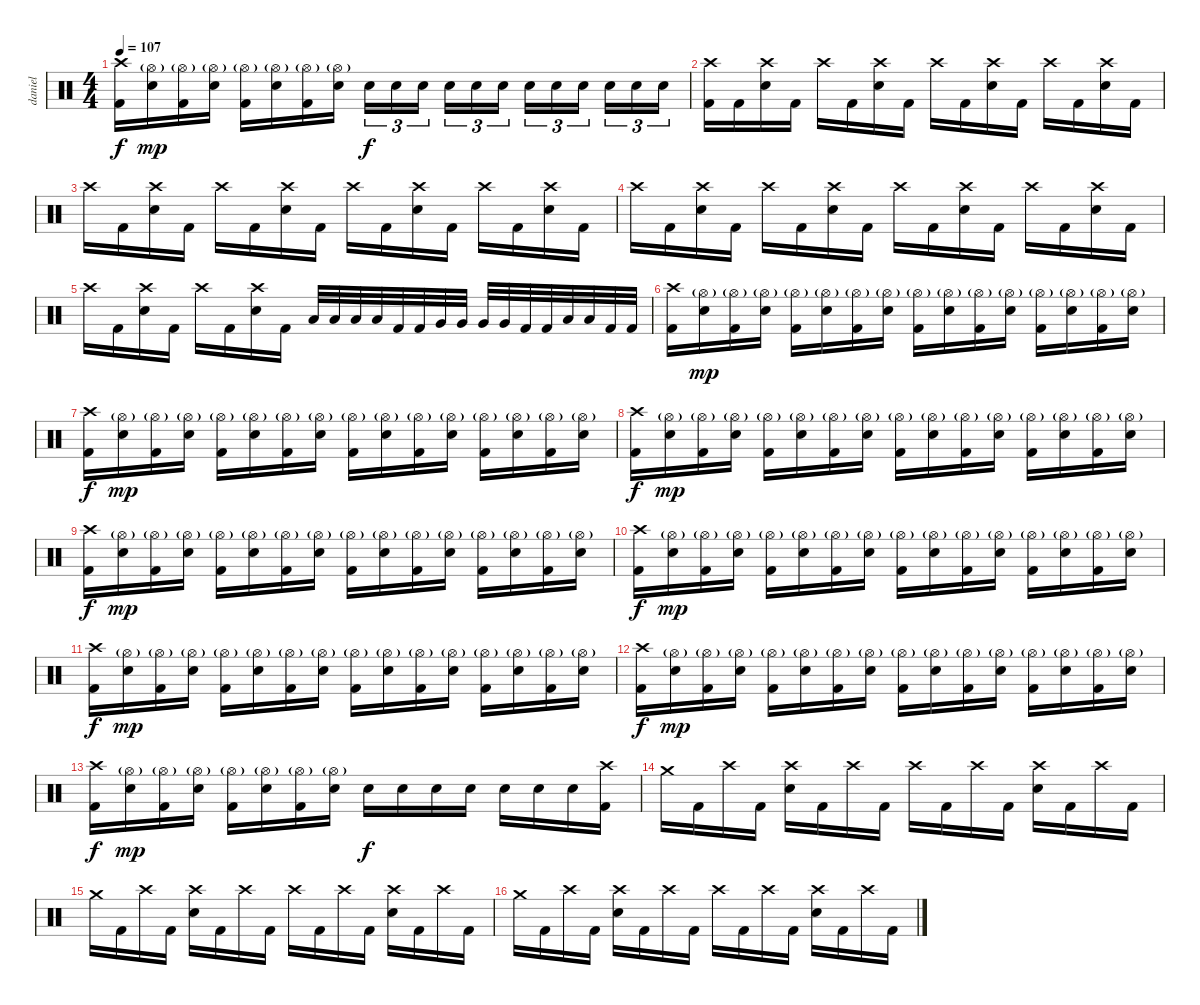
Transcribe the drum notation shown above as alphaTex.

\track ("daniel" "daniel") {instrument percussion}
\staff {score}
\articulation defaults
\ts (4 4)
\tempo 107
\clef neutral
\ks c
("Crash high (hit)" "Kick (hit) 2").16{dy f} ("Hi-Hat (open)"{g} "Electric Snare (hit)").16{dy mp} ("Hi-Hat (open)"{g} "Kick (hit) 2").16 ("Hi-Hat (open)"{g} "Electric Snare (hit)").16 ("Hi-Hat (open)"{g} "Kick (hit) 2").16 ("Hi-Hat (open)"{g} "Electric Snare (hit)").16 ("Hi-Hat (open)"{g} "Kick (hit) 2").16 ("Hi-Hat (open)"{g} "Electric Snare (hit)").16 "Electric Snare (hit)".16{tu (3 2) dy f} "Electric Snare (hit)".16{tu (3 2)} "Electric Snare (hit)".16{tu (3 2)} "Electric Snare (hit)".16{tu (3 2)} "Electric Snare (hit)".16{tu (3 2)} "Electric Snare (hit)".16{tu (3 2)} "Electric Snare (hit)".16{tu (3 2)} "Electric Snare (hit)".16{tu (3 2)} "Electric Snare (hit)".16{tu (3 2)} "Electric Snare (hit)".16{tu (3 2)} "Electric Snare (hit)".16{tu (3 2)} "Electric Snare (hit)".16{tu (3 2)} |
("Crash high (hit)" "Kick (hit) 2").16 "Kick (hit) 2".16 ("Crash high (hit)" "Electric Snare (hit)").16 "Kick (hit) 2".16 "Crash high (hit)".16 "Kick (hit) 2".16 ("Crash high (hit)" "Electric Snare (hit)").16 "Kick (hit) 2".16 "Crash high (hit)".16 "Kick (hit) 2".16 ("Crash high (hit)" "Electric Snare (hit)").16 "Kick (hit) 2".16 "Crash high (hit)".16 "Kick (hit) 2".16 ("Crash high (hit)" "Electric Snare (hit)").16 "Kick (hit) 2".16 |
"Crash high (hit)".16 "Kick (hit) 2".16 ("Crash high (hit)" "Electric Snare (hit)").16 "Kick (hit) 2".16 "Crash high (hit)".16 "Kick (hit) 2".16 ("Crash high (hit)" "Electric Snare (hit)").16 "Kick (hit) 2".16 "Crash high (hit)".16 "Kick (hit) 2".16 ("Crash high (hit)" "Electric Snare (hit)").16 "Kick (hit) 2".16 "Crash high (hit)".16 "Kick (hit) 2".16 ("Crash high (hit)" "Electric Snare (hit)").16 "Kick (hit) 2".16 |
"Crash high (hit)".16 "Kick (hit) 2".16 ("Crash high (hit)" "Electric Snare (hit)").16 "Kick (hit) 2".16 "Crash high (hit)".16 "Kick (hit) 2".16 ("Crash high (hit)" "Electric Snare (hit)").16 "Kick (hit) 2".16 "Crash high (hit)".16 "Kick (hit) 2".16 ("Crash high (hit)" "Electric Snare (hit)").16 "Kick (hit) 2".16 "Crash high (hit)".16 "Kick (hit) 2".16 ("Crash high (hit)" "Electric Snare (hit)").16 "Kick (hit) 2".16 |
"Crash high (hit)".16 "Kick (hit) 2".16 ("Crash high (hit)" "Electric Snare (hit)").16 "Kick (hit) 2".16 "Crash high (hit)".16 "Kick (hit) 2".16 ("Crash high (hit)" "Electric Snare (hit)").16 "Kick (hit) 2".16 "Low Tom (hit)".32 "Low Tom (hit)".32 "Low Tom (hit)".32 "Low Tom (hit)".32 "Kick (hit) 2".32 "Kick (hit) 2".32 "Very Low Tom (hit)".32 "Very Low Tom (hit)".32 "Very Low Tom (hit)".32 "Very Low Tom (hit)".32 "Kick (hit) 2".32 "Kick (hit) 2".32 "Low Floor Tom (hit)".32 "Low Floor Tom (hit)".32 "Kick (hit) 2".32 "Kick (hit) 2".32 |
("Crash high (hit)" "Kick (hit) 2").16 ("Hi-Hat (open)"{g} "Electric Snare (hit)").16{dy mp} ("Hi-Hat (open)"{g} "Kick (hit) 2").16 ("Hi-Hat (open)"{g} "Electric Snare (hit)").16 ("Hi-Hat (open)"{g} "Kick (hit) 2").16 ("Hi-Hat (open)"{g} "Electric Snare (hit)").16 ("Hi-Hat (open)"{g} "Kick (hit) 2").16 ("Hi-Hat (open)"{g} "Electric Snare (hit)").16 ("Hi-Hat (open)"{g} "Kick (hit) 2").16 ("Hi-Hat (open)"{g} "Electric Snare (hit)").16 ("Hi-Hat (open)"{g} "Kick (hit) 2").16 ("Hi-Hat (open)"{g} "Electric Snare (hit)").16 ("Hi-Hat (open)"{g} "Kick (hit) 2").16 ("Hi-Hat (open)"{g} "Electric Snare (hit)").16 ("Hi-Hat (open)"{g} "Kick (hit) 2").16 ("Hi-Hat (open)"{g} "Electric Snare (hit)").16 |
("Crash high (hit)" "Kick (hit) 2").16{dy f} ("Hi-Hat (open)"{g} "Electric Snare (hit)").16{dy mp} ("Hi-Hat (open)"{g} "Kick (hit) 2").16 ("Hi-Hat (open)"{g} "Electric Snare (hit)").16 ("Hi-Hat (open)"{g} "Kick (hit) 2").16 ("Hi-Hat (open)"{g} "Electric Snare (hit)").16 ("Hi-Hat (open)"{g} "Kick (hit) 2").16 ("Hi-Hat (open)"{g} "Electric Snare (hit)").16 ("Hi-Hat (open)"{g} "Kick (hit) 2").16 ("Hi-Hat (open)"{g} "Electric Snare (hit)").16 ("Hi-Hat (open)"{g} "Kick (hit) 2").16 ("Hi-Hat (open)"{g} "Electric Snare (hit)").16 ("Hi-Hat (open)"{g} "Kick (hit) 2").16 ("Hi-Hat (open)"{g} "Electric Snare (hit)").16 ("Hi-Hat (open)"{g} "Kick (hit) 2").16 ("Hi-Hat (open)"{g} "Electric Snare (hit)").16 |
("Crash high (hit)" "Kick (hit) 2").16{dy f} ("Hi-Hat (open)"{g} "Electric Snare (hit)").16{dy mp} ("Hi-Hat (open)"{g} "Kick (hit) 2").16 ("Hi-Hat (open)"{g} "Electric Snare (hit)").16 ("Hi-Hat (open)"{g} "Kick (hit) 2").16 ("Hi-Hat (open)"{g} "Electric Snare (hit)").16 ("Hi-Hat (open)"{g} "Kick (hit) 2").16 ("Hi-Hat (open)"{g} "Electric Snare (hit)").16 ("Hi-Hat (open)"{g} "Kick (hit) 2").16 ("Hi-Hat (open)"{g} "Electric Snare (hit)").16 ("Hi-Hat (open)"{g} "Kick (hit) 2").16 ("Hi-Hat (open)"{g} "Electric Snare (hit)").16 ("Hi-Hat (open)"{g} "Kick (hit) 2").16 ("Hi-Hat (open)"{g} "Electric Snare (hit)").16 ("Hi-Hat (open)"{g} "Kick (hit) 2").16 ("Hi-Hat (open)"{g} "Electric Snare (hit)").16 |
("Crash high (hit)" "Kick (hit) 2").16{dy f} ("Hi-Hat (open)"{g} "Electric Snare (hit)").16{dy mp} ("Hi-Hat (open)"{g} "Kick (hit) 2").16 ("Hi-Hat (open)"{g} "Electric Snare (hit)").16 ("Hi-Hat (open)"{g} "Kick (hit) 2").16 ("Hi-Hat (open)"{g} "Electric Snare (hit)").16 ("Hi-Hat (open)"{g} "Kick (hit) 2").16 ("Hi-Hat (open)"{g} "Electric Snare (hit)").16 ("Hi-Hat (open)"{g} "Kick (hit) 2").16 ("Hi-Hat (open)"{g} "Electric Snare (hit)").16 ("Hi-Hat (open)"{g} "Kick (hit) 2").16 ("Hi-Hat (open)"{g} "Electric Snare (hit)").16 ("Hi-Hat (open)"{g} "Kick (hit) 2").16 ("Hi-Hat (open)"{g} "Electric Snare (hit)").16 ("Hi-Hat (open)"{g} "Kick (hit) 2").16 ("Hi-Hat (open)"{g} "Electric Snare (hit)").16 |
("Crash high (hit)" "Kick (hit) 2").16{dy f} ("Hi-Hat (open)"{g} "Electric Snare (hit)").16{dy mp} ("Hi-Hat (open)"{g} "Kick (hit) 2").16 ("Hi-Hat (open)"{g} "Electric Snare (hit)").16 ("Hi-Hat (open)"{g} "Kick (hit) 2").16 ("Hi-Hat (open)"{g} "Electric Snare (hit)").16 ("Hi-Hat (open)"{g} "Kick (hit) 2").16 ("Hi-Hat (open)"{g} "Electric Snare (hit)").16 ("Hi-Hat (open)"{g} "Kick (hit) 2").16 ("Hi-Hat (open)"{g} "Electric Snare (hit)").16 ("Hi-Hat (open)"{g} "Kick (hit) 2").16 ("Hi-Hat (open)"{g} "Electric Snare (hit)").16 ("Hi-Hat (open)"{g} "Kick (hit) 2").16 ("Hi-Hat (open)"{g} "Electric Snare (hit)").16 ("Hi-Hat (open)"{g} "Kick (hit) 2").16 ("Hi-Hat (open)"{g} "Electric Snare (hit)").16 |
("Crash high (hit)" "Kick (hit) 2").16{dy f} ("Hi-Hat (open)"{g} "Electric Snare (hit)").16{dy mp} ("Hi-Hat (open)"{g} "Kick (hit) 2").16 ("Hi-Hat (open)"{g} "Electric Snare (hit)").16 ("Hi-Hat (open)"{g} "Kick (hit) 2").16 ("Hi-Hat (open)"{g} "Electric Snare (hit)").16 ("Hi-Hat (open)"{g} "Kick (hit) 2").16 ("Hi-Hat (open)"{g} "Electric Snare (hit)").16 ("Hi-Hat (open)"{g} "Kick (hit) 2").16 ("Hi-Hat (open)"{g} "Electric Snare (hit)").16 ("Hi-Hat (open)"{g} "Kick (hit) 2").16 ("Hi-Hat (open)"{g} "Electric Snare (hit)").16 ("Hi-Hat (open)"{g} "Kick (hit) 2").16 ("Hi-Hat (open)"{g} "Electric Snare (hit)").16 ("Hi-Hat (open)"{g} "Kick (hit) 2").16 ("Hi-Hat (open)"{g} "Electric Snare (hit)").16 |
("Crash high (hit)" "Kick (hit) 2").16{dy f} ("Hi-Hat (open)"{g} "Electric Snare (hit)").16{dy mp} ("Hi-Hat (open)"{g} "Kick (hit) 2").16 ("Hi-Hat (open)"{g} "Electric Snare (hit)").16 ("Hi-Hat (open)"{g} "Kick (hit) 2").16 ("Hi-Hat (open)"{g} "Electric Snare (hit)").16 ("Hi-Hat (open)"{g} "Kick (hit) 2").16 ("Hi-Hat (open)"{g} "Electric Snare (hit)").16 ("Hi-Hat (open)"{g} "Kick (hit) 2").16 ("Hi-Hat (open)"{g} "Electric Snare (hit)").16 ("Hi-Hat (open)"{g} "Kick (hit) 2").16 ("Hi-Hat (open)"{g} "Electric Snare (hit)").16 ("Hi-Hat (open)"{g} "Kick (hit) 2").16 ("Hi-Hat (open)"{g} "Electric Snare (hit)").16 ("Hi-Hat (open)"{g} "Kick (hit) 2").16 ("Hi-Hat (open)"{g} "Electric Snare (hit)").16 |
("Crash high (hit)" "Kick (hit) 2").16{dy f} ("Hi-Hat (open)"{g} "Electric Snare (hit)").16{dy mp} ("Hi-Hat (open)"{g} "Kick (hit) 2").16 ("Hi-Hat (open)"{g} "Electric Snare (hit)").16 ("Hi-Hat (open)"{g} "Kick (hit) 2").16 ("Hi-Hat (open)"{g} "Electric Snare (hit)").16 ("Hi-Hat (open)"{g} "Kick (hit) 2").16 ("Hi-Hat (open)"{g} "Electric Snare (hit)").16 "Electric Snare (hit)".16{dy f} "Electric Snare (hit)".16 "Electric Snare (hit)".16 "Electric Snare (hit)".16 "Electric Snare (hit)".16 "Electric Snare (hit)".16 "Electric Snare (hit)".16 ("Crash high (hit)" "Kick (hit) 2").16 |
"Crash medium (hit)".16 "Kick (hit) 2".16 "Crash high (hit)".16 "Kick (hit) 2".16 ("Crash high (hit)" "Electric Snare (hit)").16 "Kick (hit) 2".16 "Crash high (hit)".16 "Kick (hit) 2".16 "Crash high (hit)".16 "Kick (hit) 2".16 "Crash high (hit)".16 "Kick (hit) 2".16 ("Crash high (hit)" "Electric Snare (hit)").16 "Kick (hit) 2".16 "Crash high (hit)".16 "Kick (hit) 2".16 |
"Crash medium (hit)".16 "Kick (hit) 2".16 "Crash high (hit)".16 "Kick (hit) 2".16 ("Crash high (hit)" "Electric Snare (hit)").16 "Kick (hit) 2".16 "Crash high (hit)".16 "Kick (hit) 2".16 "Crash high (hit)".16 "Kick (hit) 2".16 "Crash high (hit)".16 "Kick (hit) 2".16 ("Crash high (hit)" "Electric Snare (hit)").16 "Kick (hit) 2".16 "Crash high (hit)".16 "Kick (hit) 2".16 |
"Crash medium (hit)".16 "Kick (hit) 2".16 "Crash high (hit)".16 "Kick (hit) 2".16 ("Crash high (hit)" "Electric Snare (hit)").16 "Kick (hit) 2".16 "Crash high (hit)".16 "Kick (hit) 2".16 "Crash high (hit)".16 "Kick (hit) 2".16 "Crash high (hit)".16 "Kick (hit) 2".16 ("Crash high (hit)" "Electric Snare (hit)").16 "Kick (hit) 2".16 "Crash high (hit)".16 "Kick (hit) 2".16
